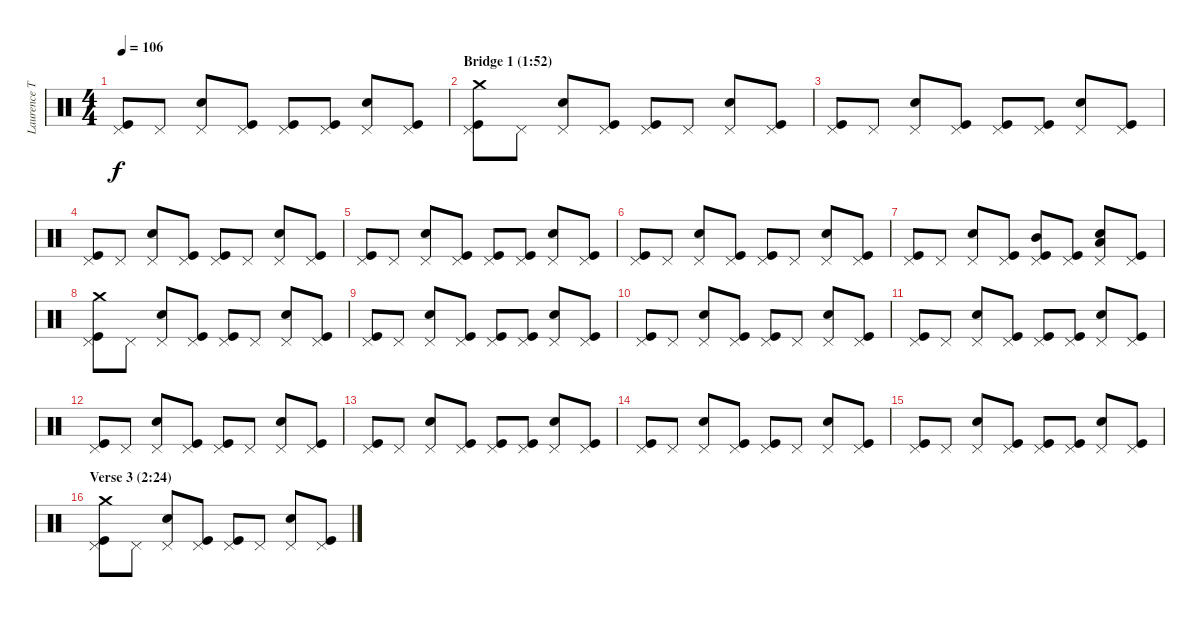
\track ("Laurence Tolhurst (drums)" "Laurence T") {instrument percussion}
\staff {score}
\articulation defaults
\ts (4 4)
\tempo 106
\clef neutral
\ks c
("Pedal Hi-Hat (hit)" "Kick (hit)").8{dy f} "Pedal Hi-Hat (hit)".8 ("Pedal Hi-Hat (hit)" "Snare (hit) 2").8 ("Pedal Hi-Hat (hit)" "Kick (hit)").8 ("Pedal Hi-Hat (hit)" "Kick (hit)").8 ("Pedal Hi-Hat (hit)" "Kick (hit)").8 ("Pedal Hi-Hat (hit)" "Snare (hit) 2").8 ("Pedal Hi-Hat (hit)" "Kick (hit)").8 |
\section ("" "Bridge 1 (1:52)")
("Crash medium (hit)" "Pedal Hi-Hat (hit)" "Kick (hit)").8 "Pedal Hi-Hat (hit)".8 ("Pedal Hi-Hat (hit)" "Snare (hit) 2").8 ("Pedal Hi-Hat (hit)" "Kick (hit)").8 ("Pedal Hi-Hat (hit)" "Kick (hit)").8 "Pedal Hi-Hat (hit)".8 ("Pedal Hi-Hat (hit)" "Snare (hit) 2").8 ("Pedal Hi-Hat (hit)" "Kick (hit)").8 |
("Pedal Hi-Hat (hit)" "Kick (hit)").8 "Pedal Hi-Hat (hit)".8 ("Pedal Hi-Hat (hit)" "Snare (hit) 2").8 ("Pedal Hi-Hat (hit)" "Kick (hit)").8 ("Pedal Hi-Hat (hit)" "Kick (hit)").8 ("Pedal Hi-Hat (hit)" "Kick (hit)").8 ("Pedal Hi-Hat (hit)" "Snare (hit) 2").8 ("Pedal Hi-Hat (hit)" "Kick (hit)").8 |
("Pedal Hi-Hat (hit)" "Kick (hit)").8 "Pedal Hi-Hat (hit)".8 ("Pedal Hi-Hat (hit)" "Snare (hit) 2").8 ("Pedal Hi-Hat (hit)" "Kick (hit)").8 ("Pedal Hi-Hat (hit)" "Kick (hit)").8 "Pedal Hi-Hat (hit)".8 ("Pedal Hi-Hat (hit)" "Snare (hit) 2").8 ("Pedal Hi-Hat (hit)" "Kick (hit)").8 |
("Pedal Hi-Hat (hit)" "Kick (hit)").8 "Pedal Hi-Hat (hit)".8 ("Pedal Hi-Hat (hit)" "Snare (hit) 2").8 ("Pedal Hi-Hat (hit)" "Kick (hit)").8 ("Pedal Hi-Hat (hit)" "Kick (hit)").8 ("Pedal Hi-Hat (hit)" "Kick (hit)").8 ("Pedal Hi-Hat (hit)" "Snare (hit) 2").8 ("Pedal Hi-Hat (hit)" "Kick (hit)").8 |
("Pedal Hi-Hat (hit)" "Kick (hit)").8 "Pedal Hi-Hat (hit)".8 ("Pedal Hi-Hat (hit)" "Snare (hit) 2").8 ("Pedal Hi-Hat (hit)" "Kick (hit)").8 ("Pedal Hi-Hat (hit)" "Kick (hit)").8 "Pedal Hi-Hat (hit)".8 ("Pedal Hi-Hat (hit)" "Snare (hit) 2").8 ("Pedal Hi-Hat (hit)" "Kick (hit)").8 |
("Pedal Hi-Hat (hit)" "Kick (hit)").8 "Pedal Hi-Hat (hit)".8 ("Pedal Hi-Hat (hit)" "Snare (hit) 2").8 ("Pedal Hi-Hat (hit)" "Kick (hit)").8 ("Mid Tom (hit)" "Pedal Hi-Hat (hit)" "Kick (hit)").8 ("Pedal Hi-Hat (hit)" "Kick (hit)").8 ("Low Tom (hit)" "Pedal Hi-Hat (hit)" "Snare (hit) 2").8 ("Pedal Hi-Hat (hit)" "Kick (hit)").8 |
("Crash medium (hit)" "Pedal Hi-Hat (hit)" "Kick (hit)").8 "Pedal Hi-Hat (hit)".8 ("Pedal Hi-Hat (hit)" "Snare (hit) 2").8 ("Pedal Hi-Hat (hit)" "Kick (hit)").8 ("Pedal Hi-Hat (hit)" "Kick (hit)").8 "Pedal Hi-Hat (hit)".8 ("Pedal Hi-Hat (hit)" "Snare (hit) 2").8 ("Pedal Hi-Hat (hit)" "Kick (hit)").8 |
("Pedal Hi-Hat (hit)" "Kick (hit)").8 "Pedal Hi-Hat (hit)".8 ("Pedal Hi-Hat (hit)" "Snare (hit) 2").8 ("Pedal Hi-Hat (hit)" "Kick (hit)").8 ("Pedal Hi-Hat (hit)" "Kick (hit)").8 ("Pedal Hi-Hat (hit)" "Kick (hit)").8 ("Pedal Hi-Hat (hit)" "Snare (hit) 2").8 ("Pedal Hi-Hat (hit)" "Kick (hit)").8 |
("Pedal Hi-Hat (hit)" "Kick (hit)").8 "Pedal Hi-Hat (hit)".8 ("Pedal Hi-Hat (hit)" "Snare (hit) 2").8 ("Pedal Hi-Hat (hit)" "Kick (hit)").8 ("Pedal Hi-Hat (hit)" "Kick (hit)").8 "Pedal Hi-Hat (hit)".8 ("Pedal Hi-Hat (hit)" "Snare (hit) 2").8 ("Pedal Hi-Hat (hit)" "Kick (hit)").8 |
("Pedal Hi-Hat (hit)" "Kick (hit)").8 "Pedal Hi-Hat (hit)".8 ("Pedal Hi-Hat (hit)" "Snare (hit) 2").8 ("Pedal Hi-Hat (hit)" "Kick (hit)").8 ("Pedal Hi-Hat (hit)" "Kick (hit)").8 ("Pedal Hi-Hat (hit)" "Kick (hit)").8 ("Pedal Hi-Hat (hit)" "Snare (hit) 2").8 ("Pedal Hi-Hat (hit)" "Kick (hit)").8 |
("Pedal Hi-Hat (hit)" "Kick (hit)").8 "Pedal Hi-Hat (hit)".8 ("Pedal Hi-Hat (hit)" "Snare (hit) 2").8 ("Pedal Hi-Hat (hit)" "Kick (hit)").8 ("Pedal Hi-Hat (hit)" "Kick (hit)").8 "Pedal Hi-Hat (hit)".8 ("Pedal Hi-Hat (hit)" "Snare (hit) 2").8 ("Pedal Hi-Hat (hit)" "Kick (hit)").8 |
("Pedal Hi-Hat (hit)" "Kick (hit)").8 "Pedal Hi-Hat (hit)".8 ("Pedal Hi-Hat (hit)" "Snare (hit) 2").8 ("Pedal Hi-Hat (hit)" "Kick (hit)").8 ("Pedal Hi-Hat (hit)" "Kick (hit)").8 ("Pedal Hi-Hat (hit)" "Kick (hit)").8 ("Pedal Hi-Hat (hit)" "Snare (hit) 2").8 ("Pedal Hi-Hat (hit)" "Kick (hit)").8 |
("Pedal Hi-Hat (hit)" "Kick (hit)").8 "Pedal Hi-Hat (hit)".8 ("Pedal Hi-Hat (hit)" "Snare (hit) 2").8 ("Pedal Hi-Hat (hit)" "Kick (hit)").8 ("Pedal Hi-Hat (hit)" "Kick (hit)").8 "Pedal Hi-Hat (hit)".8 ("Pedal Hi-Hat (hit)" "Snare (hit) 2").8 ("Pedal Hi-Hat (hit)" "Kick (hit)").8 |
("Pedal Hi-Hat (hit)" "Kick (hit)").8 "Pedal Hi-Hat (hit)".8 ("Pedal Hi-Hat (hit)" "Snare (hit) 2").8 ("Pedal Hi-Hat (hit)" "Kick (hit)").8 ("Pedal Hi-Hat (hit)" "Kick (hit)").8 ("Pedal Hi-Hat (hit)" "Kick (hit)").8 ("Pedal Hi-Hat (hit)" "Snare (hit) 2").8 ("Pedal Hi-Hat (hit)" "Kick (hit)").8 |
\section ("" "Verse 3 (2:24)")
("Crash medium (hit)" "Pedal Hi-Hat (hit)" "Kick (hit)").8 "Pedal Hi-Hat (hit)".8 ("Pedal Hi-Hat (hit)" "Snare (hit) 2").8 ("Pedal Hi-Hat (hit)" "Kick (hit)").8 ("Pedal Hi-Hat (hit)" "Kick (hit)").8 "Pedal Hi-Hat (hit)".8 ("Pedal Hi-Hat (hit)" "Snare (hit) 2").8 ("Pedal Hi-Hat (hit)" "Kick (hit)").8
